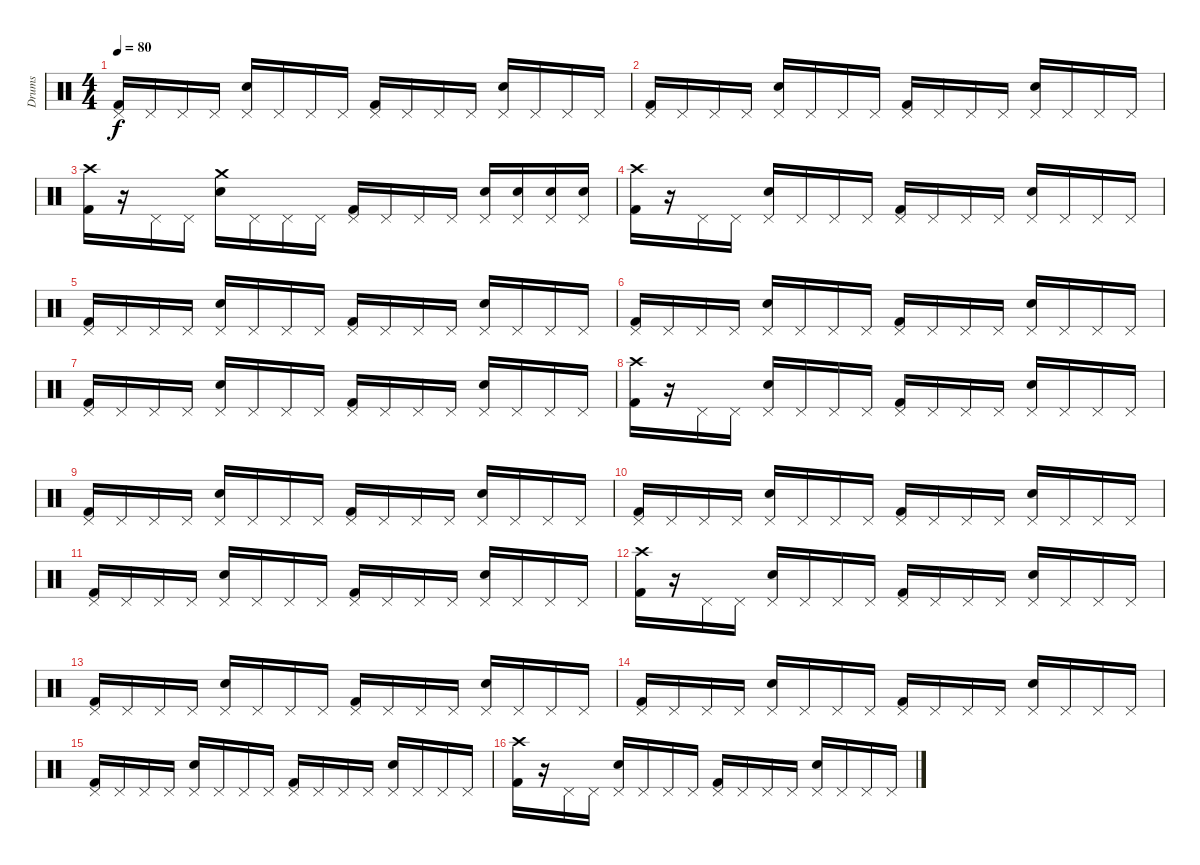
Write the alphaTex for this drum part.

\track ("Drums" "Drums") {instrument percussion}
\staff {score}
\articulation defaults
\ts (4 4)
\tempo 80
\clef neutral
\ks c
("Pedal Hi-Hat (hit)" "Kick (hit) 2").16{dy f} "Pedal Hi-Hat (hit)".16 "Pedal Hi-Hat (hit)".16 "Pedal Hi-Hat (hit)".16 ("Pedal Hi-Hat (hit)" "Snare (hit) 2").16 "Pedal Hi-Hat (hit)".16 "Pedal Hi-Hat (hit)".16 "Pedal Hi-Hat (hit)".16 ("Pedal Hi-Hat (hit)" "Kick (hit) 2").16 "Pedal Hi-Hat (hit)".16 "Pedal Hi-Hat (hit)".16 "Pedal Hi-Hat (hit)".16 ("Pedal Hi-Hat (hit)" "Snare (hit) 2").16 "Pedal Hi-Hat (hit)".16 "Pedal Hi-Hat (hit)".16 "Pedal Hi-Hat (hit)".16 |
("Pedal Hi-Hat (hit)" "Kick (hit) 2").16 "Pedal Hi-Hat (hit)".16 "Pedal Hi-Hat (hit)".16 "Pedal Hi-Hat (hit)".16 ("Pedal Hi-Hat (hit)" "Snare (hit) 2").16 "Pedal Hi-Hat (hit)".16 "Pedal Hi-Hat (hit)".16 "Pedal Hi-Hat (hit)".16 ("Pedal Hi-Hat (hit)" "Kick (hit) 2").16 "Pedal Hi-Hat (hit)".16 "Pedal Hi-Hat (hit)".16 "Pedal Hi-Hat (hit)".16 ("Pedal Hi-Hat (hit)" "Snare (hit) 2").16 "Pedal Hi-Hat (hit)".16 "Pedal Hi-Hat (hit)".16 "Pedal Hi-Hat (hit)".16 |
("Crash high (hit)" "Kick (hit) 2").16 r.16 "Pedal Hi-Hat (hit)".16 "Pedal Hi-Hat (hit)".16 ("Crash medium (hit)" "Snare (hit) 2").16 "Pedal Hi-Hat (hit)".16 "Pedal Hi-Hat (hit)".16 "Pedal Hi-Hat (hit)".16 ("Pedal Hi-Hat (hit)" "Kick (hit) 2").16 "Pedal Hi-Hat (hit)".16 "Pedal Hi-Hat (hit)".16 "Pedal Hi-Hat (hit)".16 ("Pedal Hi-Hat (hit)" "Snare (hit) 2").16 ("Pedal Hi-Hat (hit)" "Snare (hit) 2").16 ("Pedal Hi-Hat (hit)" "Snare (hit) 2").16 ("Pedal Hi-Hat (hit)" "Snare (hit) 2").16 |
("Crash high (hit)" "Kick (hit) 2").16 r.16 "Pedal Hi-Hat (hit)".16 "Pedal Hi-Hat (hit)".16 ("Pedal Hi-Hat (hit)" "Snare (hit) 2").16 "Pedal Hi-Hat (hit)".16 "Pedal Hi-Hat (hit)".16 "Pedal Hi-Hat (hit)".16 ("Pedal Hi-Hat (hit)" "Kick (hit) 2").16 "Pedal Hi-Hat (hit)".16 "Pedal Hi-Hat (hit)".16 "Pedal Hi-Hat (hit)".16 ("Pedal Hi-Hat (hit)" "Snare (hit) 2").16 "Pedal Hi-Hat (hit)".16 "Pedal Hi-Hat (hit)".16 "Pedal Hi-Hat (hit)".16 |
("Pedal Hi-Hat (hit)" "Kick (hit) 2").16 "Pedal Hi-Hat (hit)".16 "Pedal Hi-Hat (hit)".16 "Pedal Hi-Hat (hit)".16 ("Pedal Hi-Hat (hit)" "Snare (hit) 2").16 "Pedal Hi-Hat (hit)".16 "Pedal Hi-Hat (hit)".16 "Pedal Hi-Hat (hit)".16 ("Pedal Hi-Hat (hit)" "Kick (hit) 2").16 "Pedal Hi-Hat (hit)".16 "Pedal Hi-Hat (hit)".16 "Pedal Hi-Hat (hit)".16 ("Pedal Hi-Hat (hit)" "Snare (hit) 2").16 "Pedal Hi-Hat (hit)".16 "Pedal Hi-Hat (hit)".16 "Pedal Hi-Hat (hit)".16 |
("Pedal Hi-Hat (hit)" "Kick (hit) 2").16 "Pedal Hi-Hat (hit)".16 "Pedal Hi-Hat (hit)".16 "Pedal Hi-Hat (hit)".16 ("Pedal Hi-Hat (hit)" "Snare (hit) 2").16 "Pedal Hi-Hat (hit)".16 "Pedal Hi-Hat (hit)".16 "Pedal Hi-Hat (hit)".16 ("Pedal Hi-Hat (hit)" "Kick (hit) 2").16 "Pedal Hi-Hat (hit)".16 "Pedal Hi-Hat (hit)".16 "Pedal Hi-Hat (hit)".16 ("Pedal Hi-Hat (hit)" "Snare (hit) 2").16 "Pedal Hi-Hat (hit)".16 "Pedal Hi-Hat (hit)".16 "Pedal Hi-Hat (hit)".16 |
("Pedal Hi-Hat (hit)" "Kick (hit) 2").16 "Pedal Hi-Hat (hit)".16 "Pedal Hi-Hat (hit)".16 "Pedal Hi-Hat (hit)".16 ("Pedal Hi-Hat (hit)" "Snare (hit) 2").16 "Pedal Hi-Hat (hit)".16 "Pedal Hi-Hat (hit)".16 "Pedal Hi-Hat (hit)".16 ("Pedal Hi-Hat (hit)" "Kick (hit) 2").16 "Pedal Hi-Hat (hit)".16 "Pedal Hi-Hat (hit)".16 "Pedal Hi-Hat (hit)".16 ("Pedal Hi-Hat (hit)" "Snare (hit) 2").16 "Pedal Hi-Hat (hit)".16 "Pedal Hi-Hat (hit)".16 "Pedal Hi-Hat (hit)".16 |
("Crash high (hit)" "Kick (hit) 2").16 r.16 "Pedal Hi-Hat (hit)".16 "Pedal Hi-Hat (hit)".16 ("Pedal Hi-Hat (hit)" "Snare (hit) 2").16 "Pedal Hi-Hat (hit)".16 "Pedal Hi-Hat (hit)".16 "Pedal Hi-Hat (hit)".16 ("Pedal Hi-Hat (hit)" "Kick (hit) 2").16 "Pedal Hi-Hat (hit)".16 "Pedal Hi-Hat (hit)".16 "Pedal Hi-Hat (hit)".16 ("Pedal Hi-Hat (hit)" "Snare (hit) 2").16 "Pedal Hi-Hat (hit)".16 "Pedal Hi-Hat (hit)".16 "Pedal Hi-Hat (hit)".16 |
("Pedal Hi-Hat (hit)" "Kick (hit) 2").16 "Pedal Hi-Hat (hit)".16 "Pedal Hi-Hat (hit)".16 "Pedal Hi-Hat (hit)".16 ("Pedal Hi-Hat (hit)" "Snare (hit) 2").16 "Pedal Hi-Hat (hit)".16 "Pedal Hi-Hat (hit)".16 "Pedal Hi-Hat (hit)".16 ("Pedal Hi-Hat (hit)" "Kick (hit) 2").16 "Pedal Hi-Hat (hit)".16 "Pedal Hi-Hat (hit)".16 "Pedal Hi-Hat (hit)".16 ("Pedal Hi-Hat (hit)" "Snare (hit) 2").16 "Pedal Hi-Hat (hit)".16 "Pedal Hi-Hat (hit)".16 "Pedal Hi-Hat (hit)".16 |
("Pedal Hi-Hat (hit)" "Kick (hit) 2").16 "Pedal Hi-Hat (hit)".16 "Pedal Hi-Hat (hit)".16 "Pedal Hi-Hat (hit)".16 ("Pedal Hi-Hat (hit)" "Snare (hit) 2").16 "Pedal Hi-Hat (hit)".16 "Pedal Hi-Hat (hit)".16 "Pedal Hi-Hat (hit)".16 ("Pedal Hi-Hat (hit)" "Kick (hit) 2").16 "Pedal Hi-Hat (hit)".16 "Pedal Hi-Hat (hit)".16 "Pedal Hi-Hat (hit)".16 ("Pedal Hi-Hat (hit)" "Snare (hit) 2").16 "Pedal Hi-Hat (hit)".16 "Pedal Hi-Hat (hit)".16 "Pedal Hi-Hat (hit)".16 |
("Pedal Hi-Hat (hit)" "Kick (hit) 2").16 "Pedal Hi-Hat (hit)".16 "Pedal Hi-Hat (hit)".16 "Pedal Hi-Hat (hit)".16 ("Pedal Hi-Hat (hit)" "Snare (hit) 2").16 "Pedal Hi-Hat (hit)".16 "Pedal Hi-Hat (hit)".16 "Pedal Hi-Hat (hit)".16 ("Pedal Hi-Hat (hit)" "Kick (hit) 2").16 "Pedal Hi-Hat (hit)".16 "Pedal Hi-Hat (hit)".16 "Pedal Hi-Hat (hit)".16 ("Pedal Hi-Hat (hit)" "Snare (hit) 2").16 "Pedal Hi-Hat (hit)".16 "Pedal Hi-Hat (hit)".16 "Pedal Hi-Hat (hit)".16 |
("Crash high (hit)" "Kick (hit) 2").16 r.16 "Pedal Hi-Hat (hit)".16 "Pedal Hi-Hat (hit)".16 ("Pedal Hi-Hat (hit)" "Snare (hit) 2").16 "Pedal Hi-Hat (hit)".16 "Pedal Hi-Hat (hit)".16 "Pedal Hi-Hat (hit)".16 ("Pedal Hi-Hat (hit)" "Kick (hit) 2").16 "Pedal Hi-Hat (hit)".16 "Pedal Hi-Hat (hit)".16 "Pedal Hi-Hat (hit)".16 ("Pedal Hi-Hat (hit)" "Snare (hit) 2").16 "Pedal Hi-Hat (hit)".16 "Pedal Hi-Hat (hit)".16 "Pedal Hi-Hat (hit)".16 |
("Pedal Hi-Hat (hit)" "Kick (hit) 2").16 "Pedal Hi-Hat (hit)".16 "Pedal Hi-Hat (hit)".16 "Pedal Hi-Hat (hit)".16 ("Pedal Hi-Hat (hit)" "Snare (hit) 2").16 "Pedal Hi-Hat (hit)".16 "Pedal Hi-Hat (hit)".16 "Pedal Hi-Hat (hit)".16 ("Pedal Hi-Hat (hit)" "Kick (hit) 2").16 "Pedal Hi-Hat (hit)".16 "Pedal Hi-Hat (hit)".16 "Pedal Hi-Hat (hit)".16 ("Pedal Hi-Hat (hit)" "Snare (hit) 2").16 "Pedal Hi-Hat (hit)".16 "Pedal Hi-Hat (hit)".16 "Pedal Hi-Hat (hit)".16 |
("Pedal Hi-Hat (hit)" "Kick (hit) 2").16 "Pedal Hi-Hat (hit)".16 "Pedal Hi-Hat (hit)".16 "Pedal Hi-Hat (hit)".16 ("Pedal Hi-Hat (hit)" "Snare (hit) 2").16 "Pedal Hi-Hat (hit)".16 "Pedal Hi-Hat (hit)".16 "Pedal Hi-Hat (hit)".16 ("Pedal Hi-Hat (hit)" "Kick (hit) 2").16 "Pedal Hi-Hat (hit)".16 "Pedal Hi-Hat (hit)".16 "Pedal Hi-Hat (hit)".16 ("Pedal Hi-Hat (hit)" "Snare (hit) 2").16 "Pedal Hi-Hat (hit)".16 "Pedal Hi-Hat (hit)".16 "Pedal Hi-Hat (hit)".16 |
("Pedal Hi-Hat (hit)" "Kick (hit) 2").16 "Pedal Hi-Hat (hit)".16 "Pedal Hi-Hat (hit)".16 "Pedal Hi-Hat (hit)".16 ("Pedal Hi-Hat (hit)" "Snare (hit) 2").16 "Pedal Hi-Hat (hit)".16 "Pedal Hi-Hat (hit)".16 "Pedal Hi-Hat (hit)".16 ("Pedal Hi-Hat (hit)" "Kick (hit) 2").16 "Pedal Hi-Hat (hit)".16 "Pedal Hi-Hat (hit)".16 "Pedal Hi-Hat (hit)".16 ("Pedal Hi-Hat (hit)" "Snare (hit) 2").16 "Pedal Hi-Hat (hit)".16 "Pedal Hi-Hat (hit)".16 "Pedal Hi-Hat (hit)".16 |
("Crash high (hit)" "Kick (hit) 2").16 r.16 "Pedal Hi-Hat (hit)".16 "Pedal Hi-Hat (hit)".16 ("Pedal Hi-Hat (hit)" "Snare (hit) 2").16 "Pedal Hi-Hat (hit)".16 "Pedal Hi-Hat (hit)".16 "Pedal Hi-Hat (hit)".16 ("Pedal Hi-Hat (hit)" "Kick (hit) 2").16 "Pedal Hi-Hat (hit)".16 "Pedal Hi-Hat (hit)".16 "Pedal Hi-Hat (hit)".16 ("Pedal Hi-Hat (hit)" "Snare (hit) 2").16 "Pedal Hi-Hat (hit)".16 "Pedal Hi-Hat (hit)".16 "Pedal Hi-Hat (hit)".16
